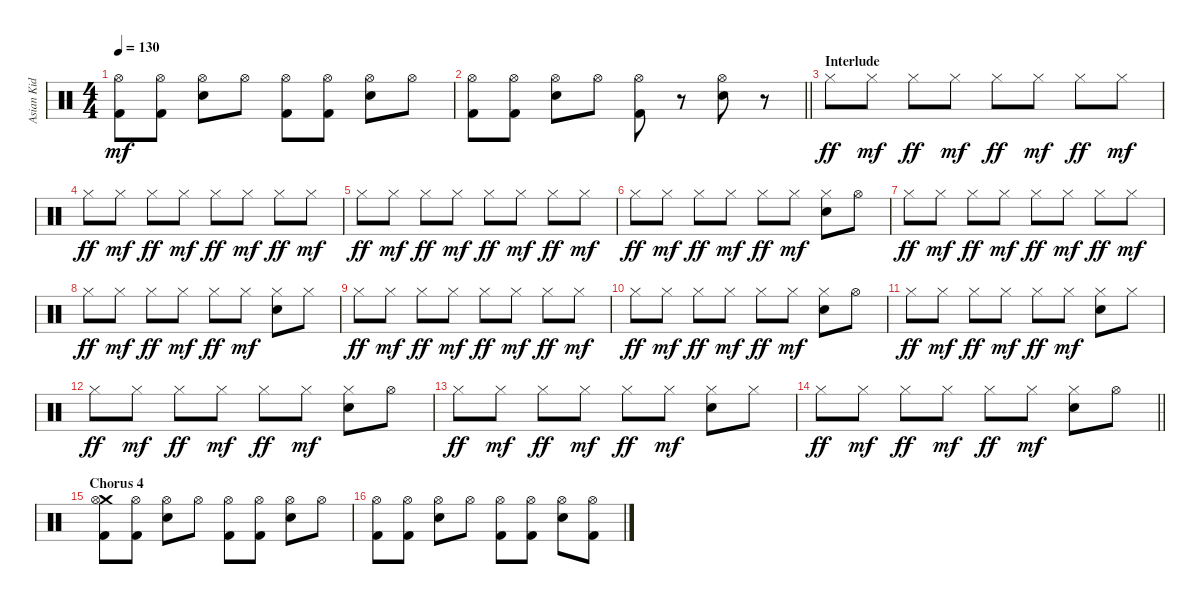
\track ("Asian Kid" "Asian Kid") {instrument percussion}
\staff {score}
\articulation defaults
\ts (4 4)
\tempo 130
\clef neutral
\ks c
("Hi-Hat (open)" "Kick (hit) 2").8{dy mf} ("Hi-Hat (open)" "Kick (hit) 2").8 ("Hi-Hat (open)" "Electric Snare (hit)").8 "Hi-Hat (open)".8 ("Hi-Hat (open)" "Kick (hit) 2").8 ("Hi-Hat (open)" "Kick (hit) 2").8 ("Hi-Hat (open)" "Electric Snare (hit)").8 "Hi-Hat (open)".8 |
\barLineRight lightlight
("Hi-Hat (open)" "Kick (hit) 2").8 ("Hi-Hat (open)" "Kick (hit) 2").8 ("Hi-Hat (open)" "Electric Snare (hit)").8 "Hi-Hat (open)".8 ("Hi-Hat (open)" "Kick (hit) 2").8 r.8 ("Hi-Hat (open)" "Electric Snare (hit)").8 r.8 |
\section ("" "Interlude")
"Hi-Hat (closed)".8{dy ff} "Hi-Hat (closed)".8{dy mf} "Hi-Hat (closed)".8{dy ff} "Hi-Hat (closed)".8{dy mf} "Hi-Hat (closed)".8{dy ff} "Hi-Hat (closed)".8{dy mf} "Hi-Hat (closed)".8{dy ff} "Hi-Hat (closed)".8{dy mf} |
"Hi-Hat (closed)".8{dy ff} "Hi-Hat (closed)".8{dy mf} "Hi-Hat (closed)".8{dy ff} "Hi-Hat (closed)".8{dy mf} "Hi-Hat (closed)".8{dy ff} "Hi-Hat (closed)".8{dy mf} "Hi-Hat (closed)".8{dy ff} "Hi-Hat (closed)".8{dy mf} |
"Hi-Hat (closed)".8{dy ff} "Hi-Hat (closed)".8{dy mf} "Hi-Hat (closed)".8{dy ff} "Hi-Hat (closed)".8{dy mf} "Hi-Hat (closed)".8{dy ff} "Hi-Hat (closed)".8{dy mf} "Hi-Hat (closed)".8{dy ff} "Hi-Hat (closed)".8{dy mf} |
"Hi-Hat (closed)".8{dy ff} "Hi-Hat (closed)".8{dy mf} "Hi-Hat (closed)".8{dy ff} "Hi-Hat (closed)".8{dy mf} "Hi-Hat (closed)".8{dy ff} "Hi-Hat (closed)".8{dy mf} ("Hi-Hat (closed)" "Electric Snare (hit)").8 "Hi-Hat (open)".8 |
"Hi-Hat (closed)".8{dy ff} "Hi-Hat (closed)".8{dy mf} "Hi-Hat (closed)".8{dy ff} "Hi-Hat (closed)".8{dy mf} "Hi-Hat (closed)".8{dy ff} "Hi-Hat (closed)".8{dy mf} "Hi-Hat (closed)".8{dy ff} "Hi-Hat (closed)".8{dy mf} |
"Hi-Hat (closed)".8{dy ff} "Hi-Hat (closed)".8{dy mf} "Hi-Hat (closed)".8{dy ff} "Hi-Hat (closed)".8{dy mf} "Hi-Hat (closed)".8{dy ff} "Hi-Hat (closed)".8{dy mf} ("Hi-Hat (closed)" "Electric Snare (hit)").8 "Hi-Hat (closed)".8 |
"Hi-Hat (closed)".8{dy ff} "Hi-Hat (closed)".8{dy mf} "Hi-Hat (closed)".8{dy ff} "Hi-Hat (closed)".8{dy mf} "Hi-Hat (closed)".8{dy ff} "Hi-Hat (closed)".8{dy mf} "Hi-Hat (closed)".8{dy ff} "Hi-Hat (closed)".8{dy mf} |
"Hi-Hat (closed)".8{dy ff} "Hi-Hat (closed)".8{dy mf} "Hi-Hat (closed)".8{dy ff} "Hi-Hat (closed)".8{dy mf} "Hi-Hat (closed)".8{dy ff} "Hi-Hat (closed)".8{dy mf} ("Hi-Hat (closed)" "Electric Snare (hit)").8 "Hi-Hat (open)".8 |
"Hi-Hat (closed)".8{dy ff} "Hi-Hat (closed)".8{dy mf} "Hi-Hat (closed)".8{dy ff} "Hi-Hat (closed)".8{dy mf} "Hi-Hat (closed)".8{dy ff} "Hi-Hat (closed)".8{dy mf} ("Hi-Hat (closed)" "Electric Snare (hit)").8 "Hi-Hat (closed)".8 |
"Hi-Hat (closed)".8{dy ff} "Hi-Hat (closed)".8{dy mf} "Hi-Hat (closed)".8{dy ff} "Hi-Hat (closed)".8{dy mf} "Hi-Hat (closed)".8{dy ff} "Hi-Hat (closed)".8{dy mf} ("Hi-Hat (closed)" "Electric Snare (hit)").8 "Hi-Hat (open)".8 |
"Hi-Hat (closed)".8{dy ff} "Hi-Hat (closed)".8{dy mf} "Hi-Hat (closed)".8{dy ff} "Hi-Hat (closed)".8{dy mf} "Hi-Hat (closed)".8{dy ff} "Hi-Hat (closed)".8{dy mf} ("Hi-Hat (closed)" "Electric Snare (hit)").8 "Hi-Hat (closed)".8 |
\barLineRight lightlight "Hi-Hat (closed)".8{dy ff} "Hi-Hat (closed)".8{dy mf} "Hi-Hat (closed)".8{dy ff} "Hi-Hat (closed)".8{dy mf} "Hi-Hat (closed)".8{dy ff} "Hi-Hat (closed)".8{dy mf}
("Hi-Hat (closed)" "Electric Snare (hit)").8 "Hi-Hat (open)".8 |
\section ("" "Chorus 4")
("Crash medium (hit)" "Hi-Hat (open)" "Kick (hit) 2").8 ("Hi-Hat (open)" "Kick (hit) 2").8 ("Hi-Hat (open)" "Electric Snare (hit)").8 "Hi-Hat (open)".8 ("Hi-Hat (open)" "Kick (hit) 2").8 ("Hi-Hat (open)" "Kick (hit) 2").8 ("Hi-Hat (open)" "Electric Snare (hit)").8 "Hi-Hat (open)".8 |
("Hi-Hat (open)" "Kick (hit) 2").8 ("Hi-Hat (open)" "Kick (hit) 2").8 ("Hi-Hat (open)" "Electric Snare (hit)").8 "Hi-Hat (open)".8 ("Hi-Hat (open)" "Kick (hit) 2").8 ("Hi-Hat (open)" "Kick (hit) 2").8 ("Hi-Hat (open)" "Electric Snare (hit)").8 ("Hi-Hat (open)" "Kick (hit) 2").8
